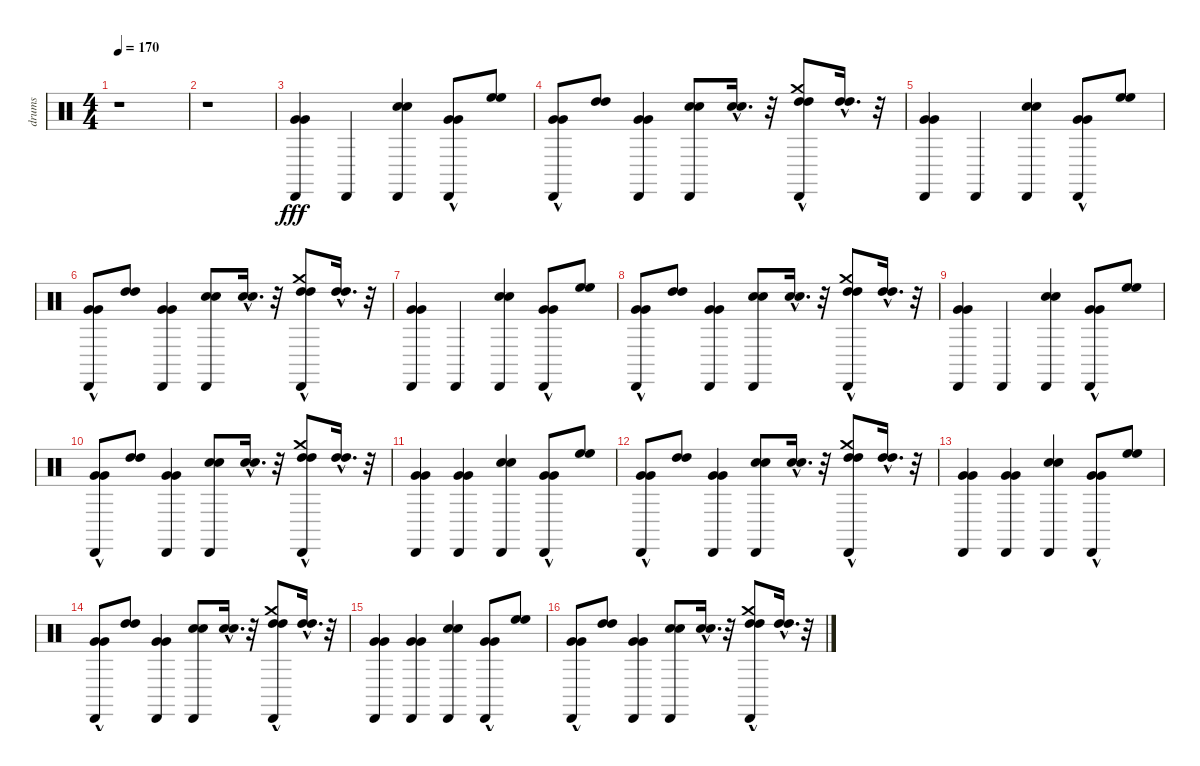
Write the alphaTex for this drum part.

\track ("drums" "drums") {instrument percussion}
\staff {score}
\articulation defaults
\ts (4 4)
\tempo 170
\clef neutral
\ks c
r.1{dy fff} |
r.1 |
("Very Low Tom (hit)" "Very Low Tom (hit)" "Cabasa (hit)").4 "Cabasa (hit)".4 ("Electric Snare (hit)" "Electric Snare (hit)" "Cabasa (hit)").4 ("Very Low Tom (hit)"{hac} "Very Low Tom (hit)"{hac} "Cabasa (hit)").8 ("High Floor Tom (hit)" "High Floor Tom (hit)").8 |
("Very Low Tom (hit)"{hac} "Very Low Tom (hit)"{hac} "Cabasa (hit)").8 ("High Tom (hit)" "High Tom (hit)").8 ("Very Low Tom (hit)" "Very Low Tom (hit)" "Cabasa (hit)").4 ("Electric Snare (hit)" "Electric Snare (hit)" "Cabasa (hit)").8 ("Electric Snare (hit)"{hac} "Electric Snare (hit)"{hac}).16{d} r.32 ("High Tom (hit)"{hac} "High Tom (hit)"{hac} "Crash medium (hit)" "Cabasa (hit)").8 ("High Tom (hit)"{hac} "High Tom (hit)"{hac}).16{d} r.32 |
("Very Low Tom (hit)" "Very Low Tom (hit)" "Cabasa (hit)").4 "Cabasa (hit)".4 ("Electric Snare (hit)" "Electric Snare (hit)" "Cabasa (hit)").4 ("Very Low Tom (hit)"{hac} "Very Low Tom (hit)"{hac} "Cabasa (hit)").8 ("High Floor Tom (hit)" "High Floor Tom (hit)").8 |
("Very Low Tom (hit)"{hac} "Very Low Tom (hit)"{hac} "Cabasa (hit)").8 ("High Tom (hit)" "High Tom (hit)").8 ("Very Low Tom (hit)" "Very Low Tom (hit)" "Cabasa (hit)").4 ("Electric Snare (hit)" "Electric Snare (hit)" "Cabasa (hit)").8 ("Electric Snare (hit)"{hac} "Electric Snare (hit)"{hac}).16{d} r.32 ("High Tom (hit)"{hac} "High Tom (hit)"{hac} "Crash medium (hit)" "Cabasa (hit)").8 ("High Tom (hit)"{hac} "High Tom (hit)"{hac}).16{d} r.32 |
("Very Low Tom (hit)" "Very Low Tom (hit)" "Cabasa (hit)").4 "Cabasa (hit)".4 ("Electric Snare (hit)" "Electric Snare (hit)" "Cabasa (hit)").4 ("Very Low Tom (hit)"{hac} "Very Low Tom (hit)"{hac} "Cabasa (hit)").8 ("High Floor Tom (hit)" "High Floor Tom (hit)").8 |
("Very Low Tom (hit)"{hac} "Very Low Tom (hit)"{hac} "Cabasa (hit)").8 ("High Tom (hit)" "High Tom (hit)").8 ("Very Low Tom (hit)" "Very Low Tom (hit)" "Cabasa (hit)").4 ("Electric Snare (hit)" "Electric Snare (hit)" "Cabasa (hit)").8 ("Electric Snare (hit)"{hac} "Electric Snare (hit)"{hac}).16{d} r.32 ("High Tom (hit)"{hac} "High Tom (hit)"{hac} "Crash medium (hit)" "Cabasa (hit)").8 ("High Tom (hit)"{hac} "High Tom (hit)"{hac}).16{d} r.32 |
("Very Low Tom (hit)" "Very Low Tom (hit)" "Cabasa (hit)").4 "Cabasa (hit)".4 ("Electric Snare (hit)" "Electric Snare (hit)" "Cabasa (hit)").4 ("Very Low Tom (hit)"{hac} "Very Low Tom (hit)"{hac} "Cabasa (hit)").8 ("High Floor Tom (hit)" "High Floor Tom (hit)").8 |
("Very Low Tom (hit)"{hac} "Very Low Tom (hit)"{hac} "Cabasa (hit)").8 ("High Tom (hit)" "High Tom (hit)").8 ("Very Low Tom (hit)" "Very Low Tom (hit)" "Cabasa (hit)").4 ("Electric Snare (hit)" "Electric Snare (hit)" "Cabasa (hit)").8 ("Electric Snare (hit)"{hac} "Electric Snare (hit)"{hac}).16{d} r.32 ("High Tom (hit)"{hac} "High Tom (hit)"{hac} "Crash medium (hit)" "Cabasa (hit)").8 ("High Tom (hit)"{hac} "High Tom (hit)"{hac}).16{d} r.32 |
("Very Low Tom (hit)" "Very Low Tom (hit)" "Cabasa (hit)").4 ("Very Low Tom (hit)" "Very Low Tom (hit)" "Cabasa (hit)").4 ("Electric Snare (hit)" "Electric Snare (hit)" "Cabasa (hit)").4 ("Very Low Tom (hit)"{hac} "Very Low Tom (hit)"{hac} "Cabasa (hit)").8 ("High Floor Tom (hit)" "High Floor Tom (hit)").8 |
("Very Low Tom (hit)"{hac} "Very Low Tom (hit)"{hac} "Cabasa (hit)").8 ("High Tom (hit)" "High Tom (hit)").8 ("Very Low Tom (hit)" "Very Low Tom (hit)" "Cabasa (hit)").4 ("Electric Snare (hit)" "Electric Snare (hit)" "Cabasa (hit)").8 ("Electric Snare (hit)"{hac} "Electric Snare (hit)"{hac}).16{d} r.32 ("High Tom (hit)"{hac} "High Tom (hit)"{hac} "Crash medium (hit)" "Cabasa (hit)").8 ("High Tom (hit)"{hac} "High Tom (hit)"{hac}).16{d} r.32 |
("Very Low Tom (hit)" "Very Low Tom (hit)" "Cabasa (hit)").4 ("Very Low Tom (hit)" "Very Low Tom (hit)" "Cabasa (hit)").4 ("Electric Snare (hit)" "Electric Snare (hit)" "Cabasa (hit)").4 ("Very Low Tom (hit)"{hac} "Very Low Tom (hit)"{hac} "Cabasa (hit)").8 ("High Floor Tom (hit)" "High Floor Tom (hit)").8 |
("Very Low Tom (hit)"{hac} "Very Low Tom (hit)"{hac} "Cabasa (hit)").8 ("High Tom (hit)" "High Tom (hit)").8 ("Very Low Tom (hit)" "Very Low Tom (hit)" "Cabasa (hit)").4 ("Electric Snare (hit)" "Electric Snare (hit)" "Cabasa (hit)").8 ("Electric Snare (hit)"{hac} "Electric Snare (hit)"{hac}).16{d} r.32 ("High Tom (hit)"{hac} "High Tom (hit)"{hac} "Crash medium (hit)" "Cabasa (hit)").8 ("High Tom (hit)"{hac} "High Tom (hit)"{hac}).16{d} r.32 |
("Very Low Tom (hit)" "Very Low Tom (hit)" "Cabasa (hit)").4 ("Very Low Tom (hit)" "Very Low Tom (hit)" "Cabasa (hit)").4 ("Electric Snare (hit)" "Electric Snare (hit)" "Cabasa (hit)").4 ("Very Low Tom (hit)"{hac} "Very Low Tom (hit)"{hac} "Cabasa (hit)").8 ("High Floor Tom (hit)" "High Floor Tom (hit)").8 |
("Very Low Tom (hit)"{hac} "Very Low Tom (hit)"{hac} "Cabasa (hit)").8 ("High Tom (hit)" "High Tom (hit)").8 ("Very Low Tom (hit)" "Very Low Tom (hit)" "Cabasa (hit)").4 ("Electric Snare (hit)" "Electric Snare (hit)" "Cabasa (hit)").8 ("Electric Snare (hit)"{hac} "Electric Snare (hit)"{hac}).16{d} r.32 ("High Tom (hit)"{hac} "High Tom (hit)"{hac} "Crash medium (hit)" "Cabasa (hit)").8 ("High Tom (hit)"{hac} "High Tom (hit)"{hac}).16{d} r.32
